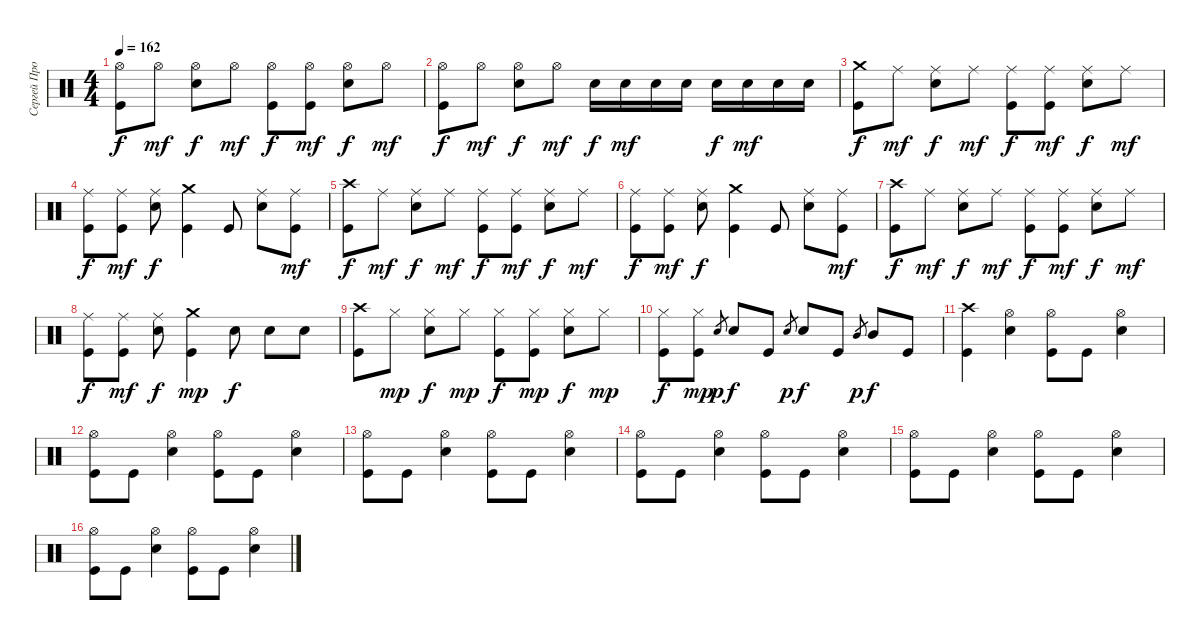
\track ("Сергей Прокофьев" "Сергей Про") {instrument percussion}
\staff {score}
\articulation defaults
\ts (4 4)
\tempo 162
\clef neutral
\ks c
("Hi-Hat (open)" "Kick (hit)").8{dy f} "Hi-Hat (open)".8{dy mf} ("Hi-Hat (open)" "Electric Snare (hit)").8{dy f} "Hi-Hat (open)".8{dy mf} ("Hi-Hat (open)" "Kick (hit)").8{dy f} ("Hi-Hat (open)" "Kick (hit)").8{dy mf} ("Hi-Hat (open)" "Electric Snare (hit)").8{dy f} "Hi-Hat (open)".8{dy mf} |
("Hi-Hat (open)" "Kick (hit)").8{dy f} "Hi-Hat (open)".8{dy mf} ("Hi-Hat (open)" "Electric Snare (hit)").8{dy f} "Hi-Hat (open)".8{dy mf} "Electric Snare (hit)".16{dy f} "Electric Snare (hit)".16{dy mf} "Electric Snare (hit)".16 "Electric Snare (hit)".16 "Electric Snare (hit)".16{dy f} "Electric Snare (hit)".16{dy mf} "Electric Snare (hit)".16 "Electric Snare (hit)".16 |
("Crash medium (hit)" "Kick (hit)").8{dy f} "Ride (middle)".8{dy mf} ("Ride (middle)" "Electric Snare (hit)").8{dy f} "Ride (middle)".8{dy mf} ("Ride (middle)" "Kick (hit)").8{dy f} ("Ride (middle)" "Kick (hit)").8{dy mf} ("Ride (middle)" "Electric Snare (hit)").8{dy f} "Ride (middle)".8{dy mf} |
("Ride (middle)" "Kick (hit)").8{dy f} ("Ride (middle)" "Kick (hit)").8{dy mf} ("Ride (middle)" "Electric Snare (hit)").8{dy f} ("Crash medium (hit)" "Kick (hit)").4 "Kick (hit)".8 ("Ride (middle)" "Electric Snare (hit)").8 ("Ride (middle)" "Kick (hit)").8{dy mf} |
("Crash high (hit)" "Kick (hit)").8{dy f} "Ride (middle)".8{dy mf} ("Ride (middle)" "Electric Snare (hit)").8{dy f} "Ride (middle)".8{dy mf} ("Ride (middle)" "Kick (hit)").8{dy f} ("Ride (middle)" "Kick (hit)").8{dy mf} ("Ride (middle)" "Electric Snare (hit)").8{dy f} "Ride (middle)".8{dy mf} |
("Ride (middle)" "Kick (hit)").8{dy f} ("Ride (middle)" "Kick (hit)").8{dy mf} ("Ride (middle)" "Electric Snare (hit)").8{dy f} ("Crash medium (hit)" "Kick (hit)").4 "Kick (hit)".8 ("Ride (middle)" "Electric Snare (hit)").8 ("Ride (middle)" "Kick (hit)").8{dy mf} |
("Crash high (hit)" "Kick (hit)").8{dy f} "Ride (middle)".8{dy mf} ("Ride (middle)" "Electric Snare (hit)").8{dy f} "Ride (middle)".8{dy mf} ("Ride (middle)" "Kick (hit)").8{dy f} ("Ride (middle)" "Kick (hit)").8{dy mf} ("Ride (middle)" "Electric Snare (hit)").8{dy f} "Ride (middle)".8{dy mf} |
("Ride (middle)" "Kick (hit)").8{dy f} ("Ride (middle)" "Kick (hit)").8{dy mf} ("Ride (middle)" "Electric Snare (hit)").8{dy f} ("Crash medium (hit)" "Kick (hit)").4{dy mp} "Electric Snare (hit)".8{dy f} "Electric Snare (hit)".8 "Electric Snare (hit)".8 |
("Crash high (hit)" "Kick (hit)").8 "Hi-Hat (closed)".8{dy mp} ("Hi-Hat (closed)" "Electric Snare (hit)").8{dy f} "Hi-Hat (closed)".8{dy mp} ("Hi-Hat (closed)" "Kick (hit)").8{dy f} ("Hi-Hat (closed)" "Kick (hit)").8{dy mp} ("Hi-Hat (closed)" "Electric Snare (hit)").8{dy f} "Hi-Hat (closed)".8{dy mp} |
("Hi-Hat (closed)" "Kick (hit)").8{dy f} ("Hi-Hat (closed)" "Kick (hit)").8{dy mp} "Electric Snare (hit)".8{gr dy p} "Electric Snare (hit)".8{dy f} "Kick (hit)".8 "Electric Snare (hit)".8{gr dy p} "Electric Snare (hit)".8{dy f} "Kick (hit)".8 "Mid Tom (hit)".8{gr dy p} "Mid Tom (hit)".8{dy f} "Kick (hit)".8 |
("Crash high (hit)" "Kick (hit)").4 ("Hi-Hat (open)" "Electric Snare (hit)").4 ("Hi-Hat (open)" "Kick (hit)").8 "Kick (hit)".8 ("Hi-Hat (open)" "Electric Snare (hit)").4 |
("Hi-Hat (open)" "Kick (hit)").8 "Kick (hit)".8 ("Hi-Hat (open)" "Electric Snare (hit)").4 ("Hi-Hat (open)" "Kick (hit)").8 "Kick (hit)".8 ("Hi-Hat (open)" "Electric Snare (hit)").4 |
("Hi-Hat (open)" "Kick (hit)").8 "Kick (hit)".8 ("Hi-Hat (open)" "Electric Snare (hit)").4 ("Hi-Hat (open)" "Kick (hit)").8 "Kick (hit)".8 ("Hi-Hat (open)" "Electric Snare (hit)").4 |
("Hi-Hat (open)" "Kick (hit)").8 "Kick (hit)".8 ("Hi-Hat (open)" "Electric Snare (hit)").4 ("Hi-Hat (open)" "Kick (hit)").8 "Kick (hit)".8 ("Hi-Hat (open)" "Electric Snare (hit)").4 |
("Hi-Hat (open)" "Kick (hit)").8 "Kick (hit)".8 ("Hi-Hat (open)" "Electric Snare (hit)").4 ("Hi-Hat (open)" "Kick (hit)").8 "Kick (hit)".8 ("Hi-Hat (open)" "Electric Snare (hit)").4 |
("Hi-Hat (open)" "Kick (hit)").8 "Kick (hit)".8 ("Hi-Hat (open)" "Electric Snare (hit)").4 ("Hi-Hat (open)" "Kick (hit)").8 "Kick (hit)".8 ("Hi-Hat (open)" "Electric Snare (hit)").4
